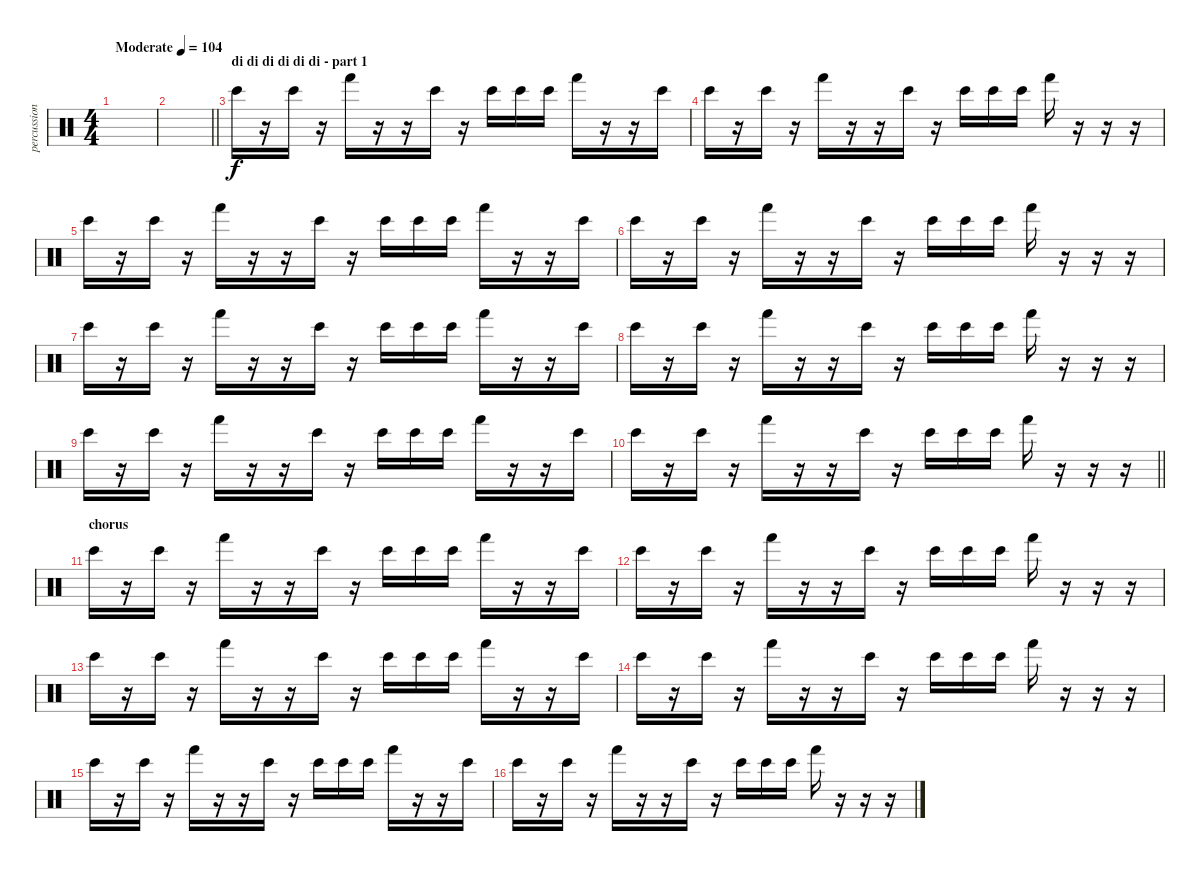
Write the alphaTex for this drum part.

\track ("percussion" "percussion") {instrument percussion}
\staff {score}
\articulation defaults
\ts (4 4)
\tempo (104 "Moderate")
\clef neutral
\ks c
|
\barLineRight lightlight
|
\section ("" "di di di di di di - part 1")
"Bongo High (hit)".16 r.16 "Bongo High (hit)".16 r.16 "Hand (hit)".16 r.16 r.16 "Bongo High (hit)".16 r.16 "Bongo High (hit)".16 "Bongo High (hit)".16 "Bongo High (hit)".16 "Hand (hit)".16 r.16 r.16 "Bongo High (hit)".16 |
"Bongo High (hit)".16 r.16 "Bongo High (hit)".16 r.16 "Hand (hit)".16 r.16 r.16 "Bongo High (hit)".16 r.16 "Bongo High (hit)".16 "Bongo High (hit)".16 "Bongo High (hit)".16 "Hand (hit)".16 r.16 r.16 r.16 |
"Bongo High (hit)".16 r.16 "Bongo High (hit)".16 r.16 "Hand (hit)".16 r.16 r.16 "Bongo High (hit)".16 r.16 "Bongo High (hit)".16 "Bongo High (hit)".16 "Bongo High (hit)".16 "Hand (hit)".16 r.16 r.16 "Bongo High (hit)".16 |
"Bongo High (hit)".16 r.16 "Bongo High (hit)".16 r.16 "Hand (hit)".16 r.16 r.16 "Bongo High (hit)".16 r.16 "Bongo High (hit)".16 "Bongo High (hit)".16 "Bongo High (hit)".16 "Hand (hit)".16 r.16 r.16 r.16 |
"Bongo High (hit)".16 r.16 "Bongo High (hit)".16 r.16 "Hand (hit)".16 r.16 r.16 "Bongo High (hit)".16 r.16 "Bongo High (hit)".16 "Bongo High (hit)".16 "Bongo High (hit)".16 "Hand (hit)".16 r.16 r.16 "Bongo High (hit)".16 |
"Bongo High (hit)".16 r.16 "Bongo High (hit)".16 r.16 "Hand (hit)".16 r.16 r.16 "Bongo High (hit)".16 r.16 "Bongo High (hit)".16 "Bongo High (hit)".16 "Bongo High (hit)".16 "Hand (hit)".16 r.16 r.16 r.16 |
"Bongo High (hit)".16 r.16 "Bongo High (hit)".16 r.16 "Hand (hit)".16 r.16 r.16 "Bongo High (hit)".16 r.16 "Bongo High (hit)".16 "Bongo High (hit)".16 "Bongo High (hit)".16 "Hand (hit)".16 r.16 r.16 "Bongo High (hit)".16 |
\barLineRight lightlight "Bongo High (hit)".16
r.16 "Bongo High (hit)".16 r.16 "Hand (hit)".16 r.16 r.16 "Bongo High (hit)".16 r.16 "Bongo High (hit)".16 "Bongo High (hit)".16 "Bongo High (hit)".16 "Hand (hit)".16 r.16 r.16 r.16 |
\section ("" "chorus")
"Bongo High (hit)".16 r.16 "Bongo High (hit)".16 r.16 "Hand (hit)".16 r.16 r.16 "Bongo High (hit)".16 r.16 "Bongo High (hit)".16 "Bongo High (hit)".16 "Bongo High (hit)".16 "Hand (hit)".16 r.16 r.16 "Bongo High (hit)".16 |
"Bongo High (hit)".16 r.16 "Bongo High (hit)".16 r.16 "Hand (hit)".16 r.16 r.16 "Bongo High (hit)".16 r.16 "Bongo High (hit)".16 "Bongo High (hit)".16 "Bongo High (hit)".16 "Hand (hit)".16 r.16 r.16 r.16 |
"Bongo High (hit)".16 r.16 "Bongo High (hit)".16 r.16 "Hand (hit)".16 r.16 r.16 "Bongo High (hit)".16 r.16 "Bongo High (hit)".16 "Bongo High (hit)".16 "Bongo High (hit)".16 "Hand (hit)".16 r.16 r.16 "Bongo High (hit)".16 |
"Bongo High (hit)".16 r.16 "Bongo High (hit)".16 r.16 "Hand (hit)".16 r.16 r.16 "Bongo High (hit)".16 r.16 "Bongo High (hit)".16 "Bongo High (hit)".16 "Bongo High (hit)".16 "Hand (hit)".16 r.16 r.16 r.16 |
"Bongo High (hit)".16 r.16 "Bongo High (hit)".16 r.16 "Hand (hit)".16 r.16 r.16 "Bongo High (hit)".16 r.16 "Bongo High (hit)".16 "Bongo High (hit)".16 "Bongo High (hit)".16 "Hand (hit)".16 r.16 r.16 "Bongo High (hit)".16 |
"Bongo High (hit)".16 r.16 "Bongo High (hit)".16 r.16 "Hand (hit)".16 r.16 r.16 "Bongo High (hit)".16 r.16 "Bongo High (hit)".16 "Bongo High (hit)".16 "Bongo High (hit)".16 "Hand (hit)".16 r.16 r.16 r.16
